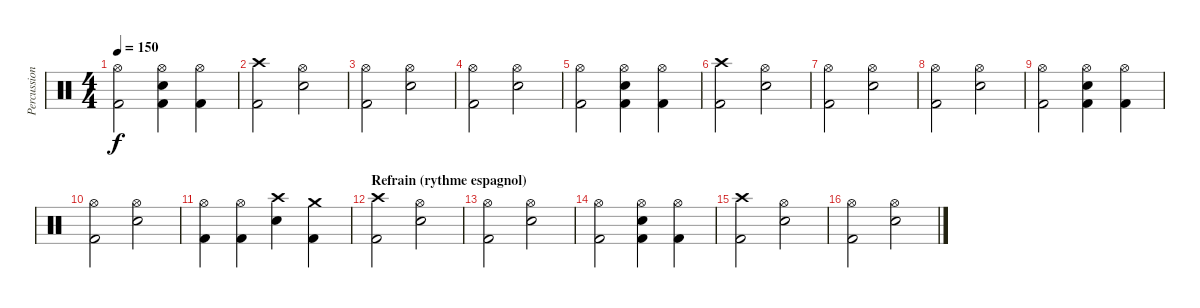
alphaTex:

\track ("Percussions" "Percussion") {instrument percussion}
\staff {score}
\articulation defaults
\ts (4 4)
\tempo 150
\clef neutral
\ks c
("Hi-Hat (open)" "Kick (hit) 2").2{dy f} ("Hi-Hat (open)" "Snare (hit) 2" "Kick (hit) 2").4 ("Hi-Hat (open)" "Kick (hit) 2").4 |
("Crash high (hit)" "Kick (hit) 2").2 ("Hi-Hat (open)" "Snare (hit) 2").2 |
("Hi-Hat (open)" "Kick (hit) 2").2 ("Hi-Hat (open)" "Snare (hit) 2").2 |
("Hi-Hat (open)" "Kick (hit) 2").2 ("Hi-Hat (open)" "Snare (hit) 2").2 |
("Hi-Hat (open)" "Kick (hit) 2").2 ("Hi-Hat (open)" "Snare (hit) 2" "Kick (hit) 2").4 ("Hi-Hat (open)" "Kick (hit) 2").4 |
("Crash high (hit)" "Kick (hit) 2").2 ("Hi-Hat (open)" "Snare (hit) 2").2 |
("Hi-Hat (open)" "Kick (hit) 2").2 ("Hi-Hat (open)" "Snare (hit) 2").2 |
("Hi-Hat (open)" "Kick (hit) 2").2 ("Hi-Hat (open)" "Snare (hit) 2").2 |
("Hi-Hat (open)" "Kick (hit) 2").2 ("Hi-Hat (open)" "Snare (hit) 2" "Kick (hit) 2").4 ("Hi-Hat (open)" "Kick (hit) 2").4 |
("Hi-Hat (open)" "Kick (hit) 2").2 ("Hi-Hat (open)" "Snare (hit) 2").2 |
("Hi-Hat (open)" "Kick (hit) 2").4 ("Hi-Hat (open)" "Kick (hit) 2").4 ("Crash high (hit)" "Snare (hit) 2").4 ("Crash medium (hit)" "Kick (hit) 2").4 |
\section ("" "Refrain (rythme espagnol)")
("Crash high (hit)" "Kick (hit) 2").2 ("Hi-Hat (open)" "Snare (hit) 2").2 |
("Hi-Hat (open)" "Kick (hit) 2").2 ("Hi-Hat (open)" "Snare (hit) 2").2 |
("Hi-Hat (open)" "Kick (hit) 2").2 ("Hi-Hat (open)" "Snare (hit) 2" "Kick (hit) 2").4 ("Hi-Hat (open)" "Kick (hit) 2").4 |
("Crash high (hit)" "Kick (hit) 2").2 ("Hi-Hat (open)" "Snare (hit) 2").2 |
("Hi-Hat (open)" "Kick (hit) 2").2 ("Hi-Hat (open)" "Snare (hit) 2").2
